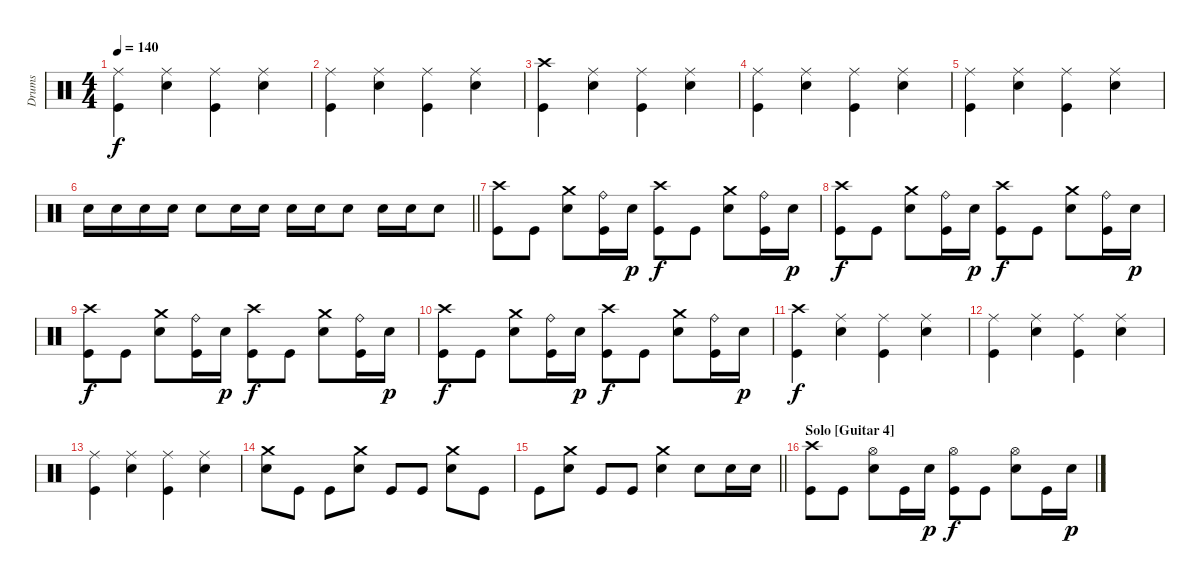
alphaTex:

\track ("Drums" "Drums") {instrument percussion}
\staff {score}
\articulation defaults
\ts (4 4)
\tempo 140
\clef neutral
\ks c
("Ride (middle)" "Kick (hit)").4{dy f} ("Ride (middle)" "Electric Snare (hit)").4 ("Ride (middle)" "Kick (hit)").4 ("Ride (middle)" "Electric Snare (hit)").4 |
("Ride (middle)" "Kick (hit)").4 ("Ride (middle)" "Electric Snare (hit)").4 ("Ride (middle)" "Kick (hit)").4 ("Ride (middle)" "Electric Snare (hit)").4 |
("Crash high (hit)" "Kick (hit)").4 ("Ride (middle)" "Electric Snare (hit)").4 ("Ride (middle)" "Kick (hit)").4 ("Ride (middle)" "Electric Snare (hit)").4 |
("Ride (middle)" "Kick (hit)").4 ("Ride (middle)" "Electric Snare (hit)").4 ("Ride (middle)" "Kick (hit)").4 ("Ride (middle)" "Electric Snare (hit)").4 |
("Ride (middle)" "Kick (hit)").4 ("Ride (middle)" "Electric Snare (hit)").4 ("Ride (middle)" "Kick (hit)").4 ("Ride (middle)" "Electric Snare (hit)").4 |
\barLineRight lightlight "Electric Snare (hit)".16 "Electric Snare (hit)".16 "Electric Snare (hit)".16 "Electric Snare (hit)".16 "Electric Snare (hit)".8 "Electric Snare (hit)".16 "Electric Snare (hit)".16 "Electric Snare (hit)".16 "Electric Snare (hit)".16 "Electric Snare (hit)".8 "Electric Snare (hit)".16 "Electric Snare (hit)".16 "Electric Snare (hit)".8
|
("Crash high (hit)" "Kick (hit)").8 "Kick (hit)".8 ("Crash medium (hit)" "Electric Snare (hit)").8 ("Ride (bell)" "Kick (hit)").16 "Electric Snare (hit)".16{dy p} ("Crash high (hit)" "Kick (hit)").8{dy f} "Kick (hit)".8 ("Crash medium (hit)" "Electric Snare (hit)").8 ("Ride (bell)" "Kick (hit)").16 "Electric Snare (hit)".16{dy p} |
("Crash high (hit)" "Kick (hit)").8{dy f} "Kick (hit)".8 ("Crash medium (hit)" "Electric Snare (hit)").8 ("Ride (bell)" "Kick (hit)").16 "Electric Snare (hit)".16{dy p} ("Crash high (hit)" "Kick (hit)").8{dy f} "Kick (hit)".8 ("Crash medium (hit)" "Electric Snare (hit)").8 ("Ride (bell)" "Kick (hit)").16 "Electric Snare (hit)".16{dy p} |
("Crash high (hit)" "Kick (hit)").8{dy f} "Kick (hit)".8 ("Crash medium (hit)" "Electric Snare (hit)").8 ("Ride (bell)" "Kick (hit)").16 "Electric Snare (hit)".16{dy p} ("Crash high (hit)" "Kick (hit)").8{dy f} "Kick (hit)".8 ("Crash medium (hit)" "Electric Snare (hit)").8 ("Ride (bell)" "Kick (hit)").16 "Electric Snare (hit)".16{dy p} |
("Crash high (hit)" "Kick (hit)").8{dy f} "Kick (hit)".8 ("Crash medium (hit)" "Electric Snare (hit)").8 ("Ride (bell)" "Kick (hit)").16 "Electric Snare (hit)".16{dy p} ("Crash high (hit)" "Kick (hit)").8{dy f} "Kick (hit)".8 ("Crash medium (hit)" "Electric Snare (hit)").8 ("Ride (bell)" "Kick (hit)").16 "Electric Snare (hit)".16{dy p} |
("Crash high (hit)" "Kick (hit)").4{dy f} ("Ride (middle)" "Electric Snare (hit)").4 ("Ride (middle)" "Kick (hit)").4 ("Ride (middle)" "Electric Snare (hit)").4 |
("Ride (middle)" "Kick (hit)").4 ("Ride (middle)" "Electric Snare (hit)").4 ("Ride (middle)" "Kick (hit)").4 ("Ride (middle)" "Electric Snare (hit)").4 |
("Ride (middle)" "Kick (hit)").4 ("Ride (middle)" "Electric Snare (hit)").4 ("Ride (middle)" "Kick (hit)").4 ("Ride (middle)" "Electric Snare (hit)").4 |
("Crash medium (hit)" "Electric Snare (hit)").8 "Kick (hit)".8 "Kick (hit)".8 ("Crash medium (hit)" "Electric Snare (hit)").8 "Kick (hit)".8 "Kick (hit)".8 ("Crash medium (hit)" "Electric Snare (hit)").8 "Kick (hit)".8 |
\barLineRight lightlight "Kick (hit)".8
("Crash medium (hit)" "Electric Snare (hit)").8 "Kick (hit)".8 "Kick (hit)".8 ("Crash medium (hit)" "Electric Snare (hit)").4 "Electric Snare (hit)".8 "Electric Snare (hit)".16 "Electric Snare (hit)".16 |
\section ("" "Solo [Guitar 4]")
("Crash high (hit)" "Kick (hit)").8 "Kick (hit)".8 ("Hi-Hat (open)" "Electric Snare (hit)").8 "Kick (hit)".16 "Electric Snare (hit)".16{dy p} ("Hi-Hat (open)" "Kick (hit)").8{dy f} "Kick (hit)".8 ("Hi-Hat (open)" "Electric Snare (hit)").8 "Kick (hit)".16 "Electric Snare (hit)".16{dy p}
